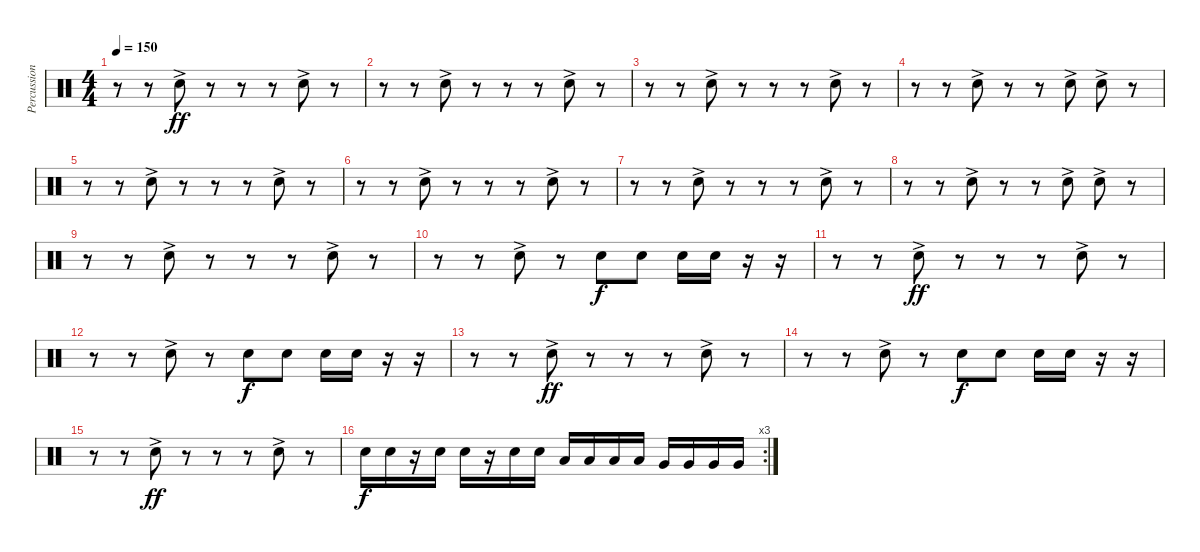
\track ("Percussion" "Percussion") {instrument percussion}
\staff {score}
\articulation defaults
\ts (4 4)
\tempo 150
\clef neutral
\ks c
r.8{dy ff} r.8 "Snare (hit) 2"{ac}.8 r.8 r.8 r.8 "Snare (hit) 2"{ac}.8 r.8 |
r.8 r.8 "Snare (hit) 2"{ac}.8 r.8 r.8 r.8 "Snare (hit) 2"{ac}.8 r.8 |
r.8 r.8 "Snare (hit) 2"{ac}.8 r.8 r.8 r.8 "Snare (hit) 2"{ac}.8 r.8 |
r.8 r.8 "Snare (hit) 2"{ac}.8 r.8 r.8 "Snare (hit) 2"{ac}.8 "Snare (hit) 2"{ac}.8 r.8 |
r.8 r.8 "Snare (hit) 2"{ac}.8 r.8 r.8 r.8 "Snare (hit) 2"{ac}.8 r.8 |
r.8 r.8 "Snare (hit) 2"{ac}.8 r.8 r.8 r.8 "Snare (hit) 2"{ac}.8 r.8 |
r.8 r.8 "Snare (hit) 2"{ac}.8 r.8 r.8 r.8 "Snare (hit) 2"{ac}.8 r.8 |
r.8 r.8 "Snare (hit) 2"{ac}.8 r.8 r.8 "Snare (hit) 2"{ac}.8 "Snare (hit) 2"{ac}.8 r.8 |
r.8 r.8 "Snare (hit) 2"{ac}.8 r.8 r.8 r.8 "Snare (hit) 2"{ac}.8 r.8 |
r.8 r.8 "Snare (hit) 2"{ac}.8 r.8 "Snare (hit) 2".8{dy f} "Snare (hit) 2".8 "Snare (hit) 2".16 "Snare (hit) 2".16 r.16 r.16 |
r.8 r.8 "Snare (hit) 2"{ac}.8{dy ff} r.8 r.8 r.8 "Snare (hit) 2"{ac}.8 r.8 |
r.8 r.8 "Snare (hit) 2"{ac}.8 r.8 "Snare (hit) 2".8{dy f} "Snare (hit) 2".8 "Snare (hit) 2".16 "Snare (hit) 2".16 r.16 r.16 |
r.8 r.8 "Snare (hit) 2"{ac}.8{dy ff} r.8 r.8 r.8 "Snare (hit) 2"{ac}.8 r.8 |
r.8 r.8 "Snare (hit) 2"{ac}.8 r.8 "Snare (hit) 2".8{dy f} "Snare (hit) 2".8 "Snare (hit) 2".16 "Snare (hit) 2".16 r.16 r.16 |
r.8 r.8 "Snare (hit) 2"{ac}.8{dy ff} r.8 r.8 r.8 "Snare (hit) 2"{ac}.8 r.8 |
\rc 3 "Snare (hit) 2".16{dy f} "Snare (hit) 2".16
r.16 "Snare (hit) 2".16 "Snare (hit) 2".16 r.16 "Snare (hit) 2".16 "Snare (hit) 2".16 "Low Tom (hit)".16 "Low Tom (hit)".16 "Low Tom (hit)".16 "Low Tom (hit)".16 "Very Low Tom (hit)".16 "Very Low Tom (hit)".16 "Very Low Tom (hit)".16 "Very Low Tom (hit)".16
